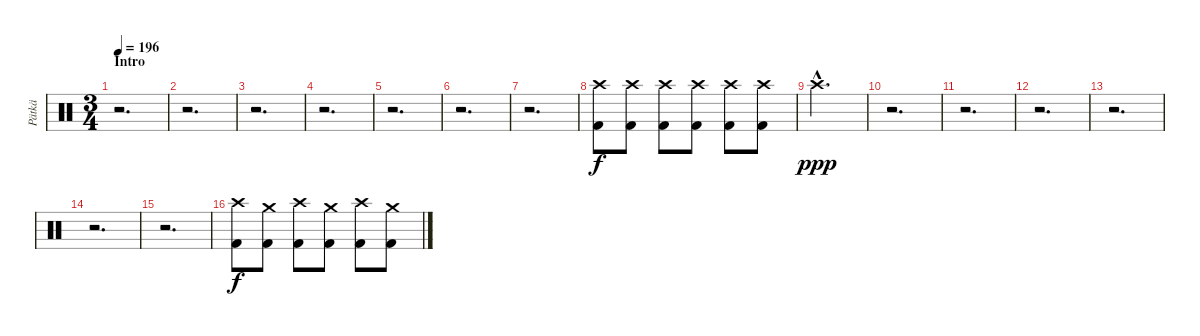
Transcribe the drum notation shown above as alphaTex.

\track ("Pätkä" "Pätkä") {instrument percussion}
\staff {score}
\articulation defaults
\ts (3 4)
\section ("" "Intro")
\tempo 196
\clef neutral
\ks c
r.2{d dy f} |
r.2{d} |
r.2{d} |
r.2{d} |
r.2{d} |
r.2{d} |
r.2{d} |
("Crash high (hit)" "Kick (hit) 2").8 ("Crash high (hit)" "Kick (hit) 2").8 ("Crash high (hit)" "Kick (hit) 2").8 ("Crash high (hit)" "Kick (hit) 2").8 ("Crash high (hit)" "Kick (hit) 2").8 ("Crash high (hit)" "Kick (hit) 2").8 |
"Crash high (hit)"{hac}.2{d dy ppp} |
r.2{d} |
r.2{d} |
r.2{d} |
r.2{d} |
r.2{d} |
r.2{d} |
("Crash high (hit)" "Kick (hit) 2").8{dy f} ("Crash medium (hit)" "Kick (hit) 2").8 ("Crash high (hit)" "Kick (hit) 2").8 ("Crash medium (hit)" "Kick (hit) 2").8 ("Crash high (hit)" "Kick (hit) 2").8 ("Crash medium (hit)" "Kick (hit) 2").8
